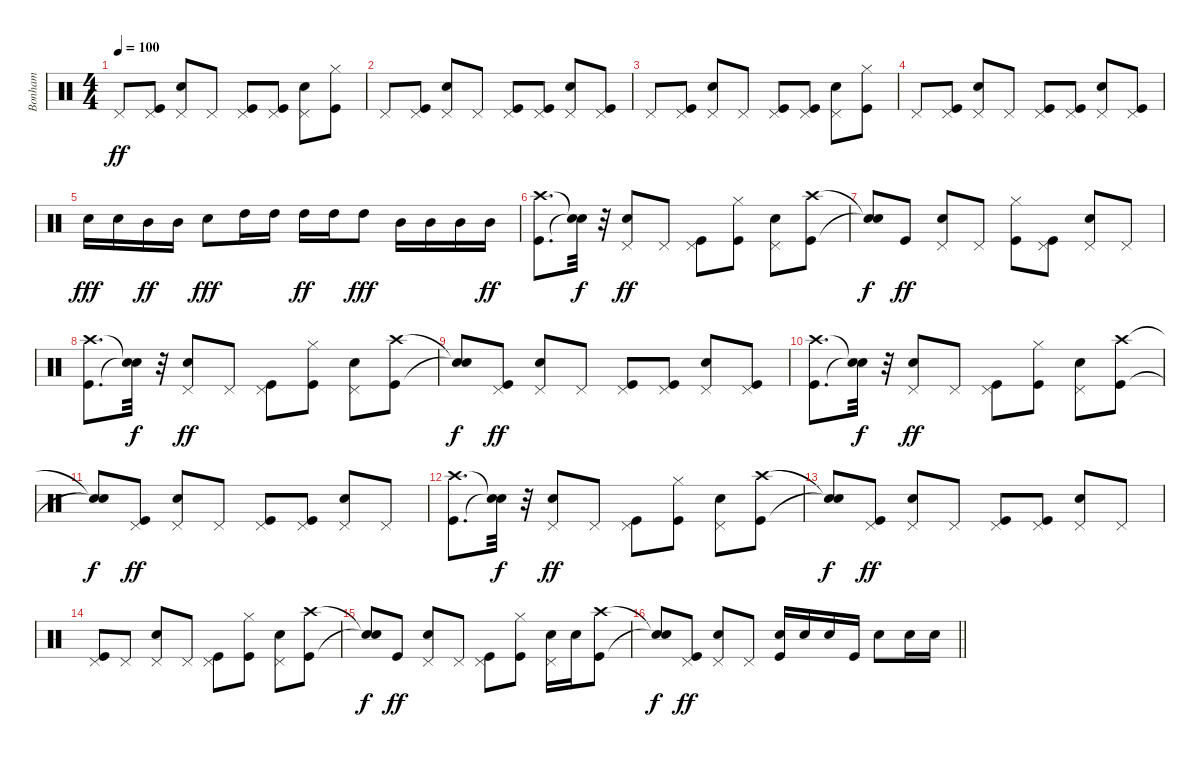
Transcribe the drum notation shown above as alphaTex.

\track ("Bonham" "Bonham") {instrument percussion}
\staff {score}
\articulation defaults
\ts (4 4)
\tempo 100
\clef neutral
\ks c "Pedal Hi-Hat (hit)".8{dy ff}
("Kick (hit)" "Pedal Hi-Hat (hit)").8 ("Snare (hit) 2" "Pedal Hi-Hat (hit)").8 "Pedal Hi-Hat (hit)".8 ("Kick (hit)" "Pedal Hi-Hat (hit)").8 ("Kick (hit)" "Pedal Hi-Hat (hit)").8 ("Snare (hit) 2" "Pedal Hi-Hat (hit)").8 ("Kick (hit)" "Hi-Hat (closed)").8 |
"Pedal Hi-Hat (hit)".8 ("Kick (hit)" "Pedal Hi-Hat (hit)").8 ("Snare (hit) 2" "Pedal Hi-Hat (hit)").8 "Pedal Hi-Hat (hit)".8 ("Kick (hit)" "Pedal Hi-Hat (hit)").8 ("Kick (hit)" "Pedal Hi-Hat (hit)").8 ("Snare (hit) 2" "Pedal Hi-Hat (hit)").8 ("Kick (hit)" "Pedal Hi-Hat (hit)").8 |
"Pedal Hi-Hat (hit)".8 ("Kick (hit)" "Pedal Hi-Hat (hit)").8 ("Snare (hit) 2" "Pedal Hi-Hat (hit)").8 "Pedal Hi-Hat (hit)".8 ("Kick (hit)" "Pedal Hi-Hat (hit)").8 ("Kick (hit)" "Pedal Hi-Hat (hit)").8 ("Snare (hit) 2" "Pedal Hi-Hat (hit)").8 ("Kick (hit)" "Hi-Hat (closed)").8 |
"Pedal Hi-Hat (hit)".8 ("Kick (hit)" "Pedal Hi-Hat (hit)").8 ("Snare (hit) 2" "Pedal Hi-Hat (hit)").8 "Pedal Hi-Hat (hit)".8 ("Kick (hit)" "Pedal Hi-Hat (hit)").8 ("Kick (hit)" "Pedal Hi-Hat (hit)").8 ("Snare (hit) 2" "Pedal Hi-Hat (hit)").8 ("Kick (hit)" "Pedal Hi-Hat (hit)").8 |
"Snare (hit) 2".16{dy fff} "Snare (hit) 2".16 "Mid Tom (hit)".16{dy ff} "Mid Tom (hit)".16 "Snare (hit) 2".8{dy fff} "High Tom (hit)".16 "High Tom (hit)".16 "High Tom (hit)".16{dy ff} "High Tom (hit)".16 "High Tom (hit)".8{dy fff} "Mid Tom (hit)".16 "Mid Tom (hit)".16 "Mid Tom (hit)".16 "Mid Tom (hit)".16{dy ff} |
("Kick (hit)" "Crash high (hit)").8{d} ("Snare (hit)"{t} "Snare (hit)"{t}).32{dy f} r.32 ("Snare (hit) 2" "Pedal Hi-Hat (hit)").8{dy ff} "Pedal Hi-Hat (hit)".8 ("Kick (hit)" "Pedal Hi-Hat (hit)").8 ("Kick (hit)" "Hi-Hat (closed)").8 ("Snare (hit) 2" "Pedal Hi-Hat (hit)").8 ("Kick (hit)" "Crash high (hit)").8 |
("Snare (hit)"{t} "Snare (hit)"{t}).8{dy f} "Kick (hit)".8{dy ff} ("Snare (hit) 2" "Pedal Hi-Hat (hit)").8 "Pedal Hi-Hat (hit)".8 ("Kick (hit)" "Hi-Hat (closed)").8 ("Kick (hit)" "Pedal Hi-Hat (hit)").8 ("Snare (hit) 2" "Pedal Hi-Hat (hit)").8 "Pedal Hi-Hat (hit)".8 |
("Kick (hit)" "Crash high (hit)").8{d} ("Snare (hit)"{t} "Snare (hit)"{t}).32{dy f} r.32 ("Snare (hit) 2" "Pedal Hi-Hat (hit)").8{dy ff} "Pedal Hi-Hat (hit)".8 ("Kick (hit)" "Pedal Hi-Hat (hit)").8 ("Kick (hit)" "Hi-Hat (closed)").8 ("Snare (hit) 2" "Pedal Hi-Hat (hit)").8 ("Kick (hit)" "Crash high (hit)").8 |
("Snare (hit)"{t} "Snare (hit)"{t}).8{dy f} ("Kick (hit)" "Pedal Hi-Hat (hit)").8{dy ff} ("Snare (hit) 2" "Pedal Hi-Hat (hit)").8 "Pedal Hi-Hat (hit)".8 ("Kick (hit)" "Pedal Hi-Hat (hit)").8 ("Kick (hit)" "Pedal Hi-Hat (hit)").8 ("Snare (hit) 2" "Pedal Hi-Hat (hit)").8 ("Kick (hit)" "Pedal Hi-Hat (hit)").8 |
("Kick (hit)" "Crash high (hit)").8{d} ("Snare (hit)"{t} "Snare (hit)"{t}).32{dy f} r.32 ("Snare (hit) 2" "Pedal Hi-Hat (hit)").8{dy ff} "Pedal Hi-Hat (hit)".8 ("Kick (hit)" "Pedal Hi-Hat (hit)").8 ("Kick (hit)" "Hi-Hat (closed)").8 ("Snare (hit) 2" "Pedal Hi-Hat (hit)").8 ("Kick (hit)" "Crash high (hit)").8 |
("Snare (hit)"{t} "Snare (hit)"{t}).8{dy f} ("Kick (hit)" "Pedal Hi-Hat (hit)").8{dy ff} ("Snare (hit) 2" "Pedal Hi-Hat (hit)").8 "Pedal Hi-Hat (hit)".8 ("Kick (hit)" "Pedal Hi-Hat (hit)").8 ("Kick (hit)" "Pedal Hi-Hat (hit)").8 ("Snare (hit) 2" "Pedal Hi-Hat (hit)").8 "Pedal Hi-Hat (hit)".8 |
("Kick (hit)" "Crash high (hit)").8{d} ("Snare (hit)"{t} "Snare (hit)"{t}).32{dy f} r.32 ("Snare (hit) 2" "Pedal Hi-Hat (hit)").8{dy ff} "Pedal Hi-Hat (hit)".8 ("Kick (hit)" "Pedal Hi-Hat (hit)").8 ("Kick (hit)" "Hi-Hat (closed)").8 ("Snare (hit) 2" "Pedal Hi-Hat (hit)").8 ("Kick (hit)" "Crash high (hit)").8 |
("Snare (hit)"{t} "Snare (hit)"{t}).8{dy f} ("Kick (hit)" "Pedal Hi-Hat (hit)").8{dy ff} ("Snare (hit) 2" "Pedal Hi-Hat (hit)").8 "Pedal Hi-Hat (hit)".8 ("Kick (hit)" "Pedal Hi-Hat (hit)").8 ("Kick (hit)" "Pedal Hi-Hat (hit)").8 ("Snare (hit) 2" "Pedal Hi-Hat (hit)").8 "Pedal Hi-Hat (hit)".8 |
("Kick (hit)" "Pedal Hi-Hat (hit)").8 "Pedal Hi-Hat (hit)".8 ("Snare (hit) 2" "Pedal Hi-Hat (hit)").8 "Pedal Hi-Hat (hit)".8 ("Kick (hit)" "Pedal Hi-Hat (hit)").8 ("Kick (hit)" "Hi-Hat (closed)").8 ("Snare (hit) 2" "Pedal Hi-Hat (hit)").8 ("Kick (hit)" "Crash high (hit)").8 |
("Snare (hit)"{t} "Snare (hit)"{t}).8{dy f} "Kick (hit)".8{dy ff} ("Snare (hit) 2" "Pedal Hi-Hat (hit)").8 "Pedal Hi-Hat (hit)".8 ("Kick (hit)" "Pedal Hi-Hat (hit)").8 ("Kick (hit)" "Hi-Hat (closed)").8 ("Snare (hit) 2" "Pedal Hi-Hat (hit)").16 "Snare (hit) 2".16 ("Kick (hit)" "Crash high (hit)").8 |
\barLineRight lightlight
("Snare (hit)"{t} "Snare (hit)"{t}).8{dy f} ("Kick (hit)" "Pedal Hi-Hat (hit)").8{dy ff} ("Snare (hit) 2" "Pedal Hi-Hat (hit)").8 "Pedal Hi-Hat (hit)".8 ("Kick (hit)" "Snare (hit) 2").16 "Snare (hit) 2".16 "Snare (hit) 2".16 "Kick (hit)".16 "Snare (hit) 2".8 "Snare (hit) 2".16 "Snare (hit) 2".16
